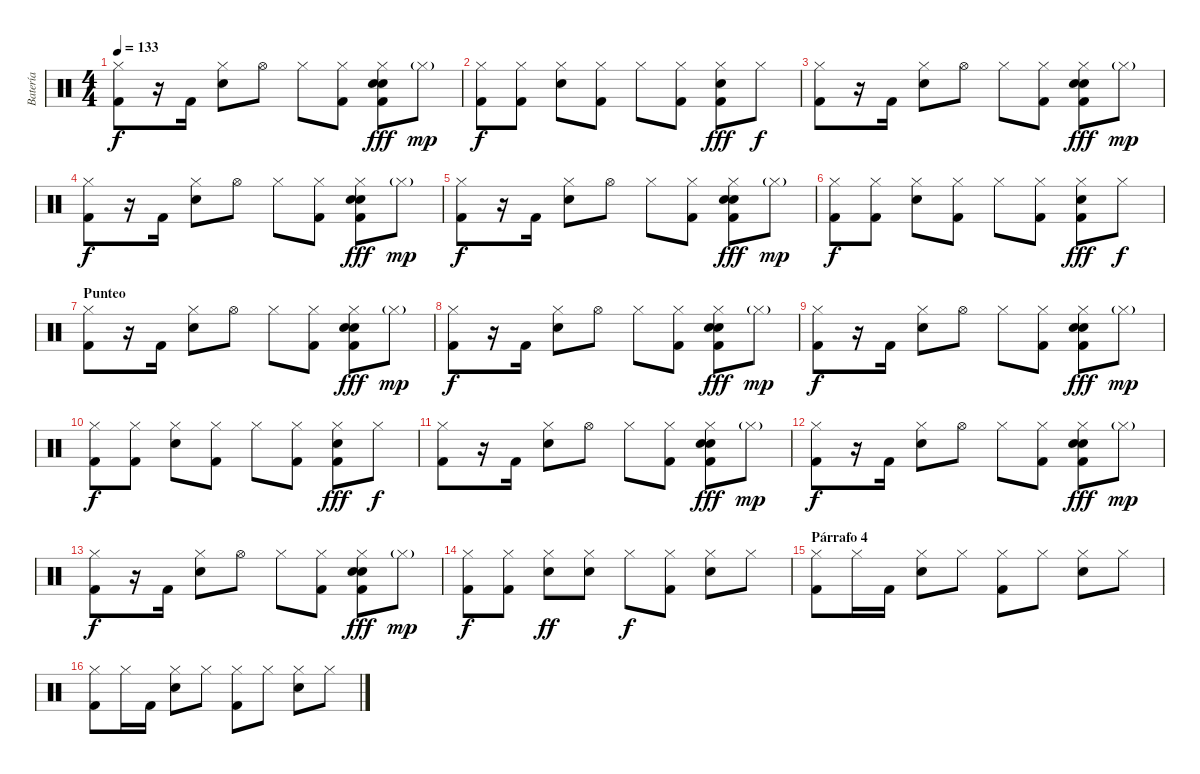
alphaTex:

\track ("Batería" "Batería") {instrument percussion}
\staff {score}
\articulation defaults
\ts (4 4)
\tempo 133
\clef neutral
\ks c
("Hi-Hat (closed)" "Kick (hit) 2").8{dy f} r.16 "Kick (hit) 2".16 ("Hi-Hat (closed)" "Snare (hit) 2").8 "Hi-Hat (open)".8 "Hi-Hat (closed)".8 ("Hi-Hat (closed)" "Kick (hit) 2").8 ("Hi-Hat (closed)" "Snare (hit) 2" "Snare (hit) 2" "Kick (hit) 2").8{dy fff} "Hi-Hat (closed)"{g}.8{dy mp} |
("Hi-Hat (closed)" "Kick (hit) 2").8{dy f} ("Hi-Hat (closed)" "Kick (hit) 2").8 ("Hi-Hat (closed)" "Snare (hit) 2").8 ("Hi-Hat (closed)" "Kick (hit) 2").8 "Hi-Hat (closed)".8 ("Hi-Hat (closed)" "Kick (hit) 2").8 ("Hi-Hat (closed)" "Snare (hit) 2" "Kick (hit) 2").8{dy fff} "Hi-Hat (closed)".8{dy f} |
("Hi-Hat (closed)" "Kick (hit) 2").8 r.16 "Kick (hit) 2".16 ("Hi-Hat (closed)" "Snare (hit) 2").8 "Hi-Hat (open)".8 "Hi-Hat (closed)".8 ("Hi-Hat (closed)" "Kick (hit) 2").8 ("Hi-Hat (closed)" "Snare (hit) 2" "Snare (hit) 2" "Kick (hit) 2").8{dy fff} "Hi-Hat (closed)"{g}.8{dy mp} |
("Hi-Hat (closed)" "Kick (hit) 2").8{dy f} r.16 "Kick (hit) 2".16 ("Hi-Hat (closed)" "Snare (hit) 2").8 "Hi-Hat (open)".8 "Hi-Hat (closed)".8 ("Hi-Hat (closed)" "Kick (hit) 2").8 ("Hi-Hat (closed)" "Snare (hit) 2" "Snare (hit) 2" "Kick (hit) 2").8{dy fff} "Hi-Hat (closed)"{g}.8{dy mp} |
("Hi-Hat (closed)" "Kick (hit) 2").8{dy f} r.16 "Kick (hit) 2".16 ("Hi-Hat (closed)" "Snare (hit) 2").8 "Hi-Hat (open)".8 "Hi-Hat (closed)".8 ("Hi-Hat (closed)" "Kick (hit) 2").8 ("Hi-Hat (closed)" "Snare (hit) 2" "Snare (hit) 2" "Kick (hit) 2").8{dy fff} "Hi-Hat (closed)"{g}.8{dy mp} |
("Hi-Hat (closed)" "Kick (hit) 2").8{dy f} ("Hi-Hat (closed)" "Kick (hit) 2").8 ("Hi-Hat (closed)" "Snare (hit) 2").8 ("Hi-Hat (closed)" "Kick (hit) 2").8 "Hi-Hat (closed)".8 ("Hi-Hat (closed)" "Kick (hit) 2").8 ("Hi-Hat (closed)" "Snare (hit) 2" "Kick (hit) 2").8{dy fff} "Hi-Hat (closed)".8{dy f} |
\section ("" "Punteo")
("Hi-Hat (closed)" "Kick (hit) 2").8 r.16 "Kick (hit) 2".16 ("Hi-Hat (closed)" "Snare (hit) 2").8 "Hi-Hat (open)".8 "Hi-Hat (closed)".8 ("Hi-Hat (closed)" "Kick (hit) 2").8 ("Hi-Hat (closed)" "Snare (hit) 2" "Snare (hit) 2" "Kick (hit) 2").8{dy fff} "Hi-Hat (closed)"{g}.8{dy mp} |
("Hi-Hat (closed)" "Kick (hit) 2").8{dy f} r.16 "Kick (hit) 2".16 ("Hi-Hat (closed)" "Snare (hit) 2").8 "Hi-Hat (open)".8 "Hi-Hat (closed)".8 ("Hi-Hat (closed)" "Kick (hit) 2").8 ("Hi-Hat (closed)" "Snare (hit) 2" "Snare (hit) 2" "Kick (hit) 2").8{dy fff} "Hi-Hat (closed)"{g}.8{dy mp} |
("Hi-Hat (closed)" "Kick (hit) 2").8{dy f} r.16 "Kick (hit) 2".16 ("Hi-Hat (closed)" "Snare (hit) 2").8 "Hi-Hat (open)".8 "Hi-Hat (closed)".8 ("Hi-Hat (closed)" "Kick (hit) 2").8 ("Hi-Hat (closed)" "Snare (hit) 2" "Snare (hit) 2" "Kick (hit) 2").8{dy fff} "Hi-Hat (closed)"{g}.8{dy mp} |
("Hi-Hat (closed)" "Kick (hit) 2").8{dy f} ("Hi-Hat (closed)" "Kick (hit) 2").8 ("Hi-Hat (closed)" "Snare (hit) 2").8 ("Hi-Hat (closed)" "Kick (hit) 2").8 "Hi-Hat (closed)".8 ("Hi-Hat (closed)" "Kick (hit) 2").8 ("Hi-Hat (closed)" "Snare (hit) 2" "Kick (hit) 2").8{dy fff} "Hi-Hat (closed)".8{dy f} |
("Hi-Hat (closed)" "Kick (hit) 2").8 r.16 "Kick (hit) 2".16 ("Hi-Hat (closed)" "Snare (hit) 2").8 "Hi-Hat (open)".8 "Hi-Hat (closed)".8 ("Hi-Hat (closed)" "Kick (hit) 2").8 ("Hi-Hat (closed)" "Snare (hit) 2" "Snare (hit) 2" "Kick (hit) 2").8{dy fff} "Hi-Hat (closed)"{g}.8{dy mp} |
("Hi-Hat (closed)" "Kick (hit) 2").8{dy f} r.16 "Kick (hit) 2".16 ("Hi-Hat (closed)" "Snare (hit) 2").8 "Hi-Hat (open)".8 "Hi-Hat (closed)".8 ("Hi-Hat (closed)" "Kick (hit) 2").8 ("Hi-Hat (closed)" "Snare (hit) 2" "Snare (hit) 2" "Kick (hit) 2").8{dy fff} "Hi-Hat (closed)"{g}.8{dy mp} |
("Hi-Hat (closed)" "Kick (hit) 2").8{dy f} r.16 "Kick (hit) 2".16 ("Hi-Hat (closed)" "Snare (hit) 2").8 "Hi-Hat (open)".8 "Hi-Hat (closed)".8 ("Hi-Hat (closed)" "Kick (hit) 2").8 ("Hi-Hat (closed)" "Snare (hit) 2" "Snare (hit) 2" "Kick (hit) 2").8{dy fff} "Hi-Hat (closed)"{g}.8{dy mp} |
("Hi-Hat (closed)" "Kick (hit) 2").8{dy f} ("Hi-Hat (closed)" "Kick (hit) 2").8 ("Hi-Hat (closed)" "Snare (hit) 2").8{dy ff} ("Hi-Hat (closed)" "Snare (hit) 2").8 "Hi-Hat (closed)".8{dy f} ("Hi-Hat (closed)" "Kick (hit) 2").8 ("Hi-Hat (closed)" "Snare (hit) 2").8 "Hi-Hat (closed)".8 |
\section ("" "Párrafo 4")
("Hi-Hat (closed)" "Kick (hit) 2").8 "Hi-Hat (closed)".16 "Kick (hit) 2".16 ("Hi-Hat (closed)" "Snare (hit) 2").8 "Hi-Hat (closed)".8 ("Hi-Hat (closed)" "Kick (hit) 2").8 "Hi-Hat (closed)".8 ("Hi-Hat (closed)" "Snare (hit) 2").8 "Hi-Hat (closed)".8 |
("Hi-Hat (closed)" "Kick (hit) 2").8 "Hi-Hat (closed)".16 "Kick (hit) 2".16 ("Hi-Hat (closed)" "Snare (hit) 2").8 "Hi-Hat (closed)".8 ("Hi-Hat (closed)" "Kick (hit) 2").8 "Hi-Hat (closed)".8 ("Hi-Hat (closed)" "Snare (hit) 2").8 "Hi-Hat (closed)".8
